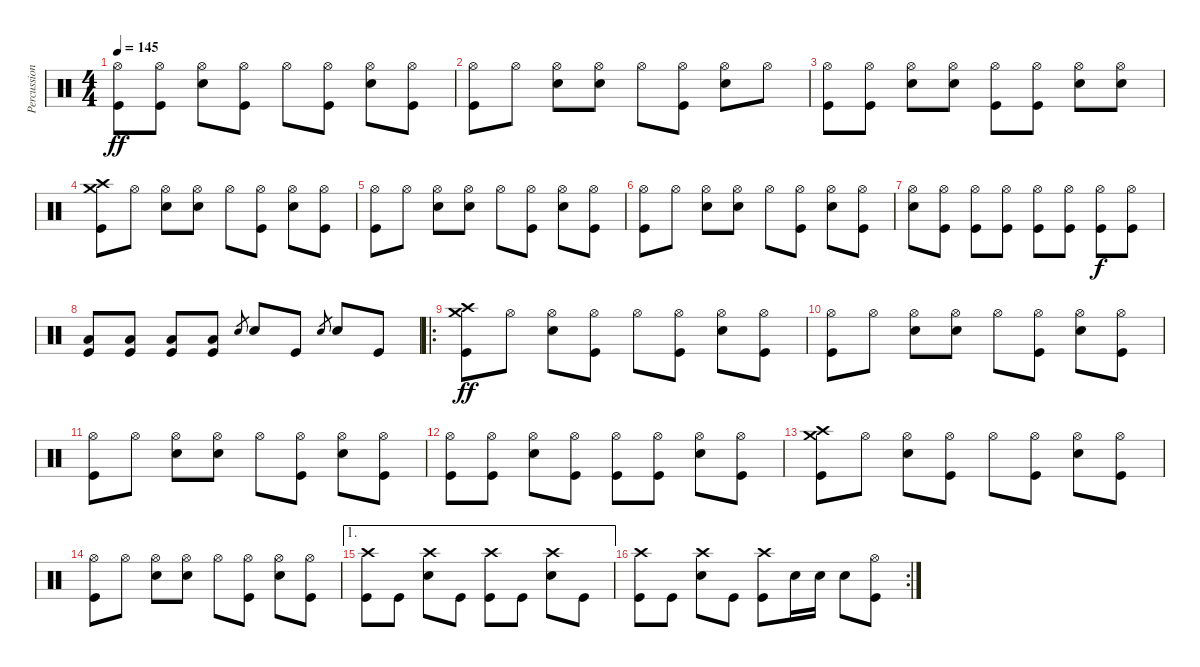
\track ("Percussion" "Percussion") {instrument percussion}
\staff {score}
\articulation defaults
\ts (4 4)
\tempo 145
\clef neutral
\ks c
("Hi-Hat (open)" "Kick (hit)").8{dy ff} ("Hi-Hat (open)" "Kick (hit)").8 ("Hi-Hat (open)" "Electric Snare (hit)").8 ("Hi-Hat (open)" "Kick (hit)").8 "Hi-Hat (open)".8 ("Hi-Hat (open)" "Kick (hit)").8 ("Hi-Hat (open)" "Electric Snare (hit)").8 ("Hi-Hat (open)" "Kick (hit)").8 |
("Hi-Hat (open)" "Kick (hit)").8 "Hi-Hat (open)".8 ("Hi-Hat (open)" "Electric Snare (hit)").8 ("Hi-Hat (open)" "Electric Snare (hit)").8 "Hi-Hat (open)".8 ("Hi-Hat (open)" "Kick (hit)").8 ("Hi-Hat (open)" "Electric Snare (hit)").8 "Hi-Hat (open)".8 |
("Hi-Hat (open)" "Kick (hit)").8 ("Hi-Hat (open)" "Kick (hit)").8 ("Hi-Hat (open)" "Electric Snare (hit)").8 ("Hi-Hat (open)" "Electric Snare (hit)").8 ("Hi-Hat (open)" "Kick (hit)").8 ("Hi-Hat (open)" "Kick (hit)").8 ("Hi-Hat (open)" "Electric Snare (hit)").8 ("Hi-Hat (open)" "Electric Snare (hit)").8 |
("Crash high (hit)" "Crash medium (hit)" "Kick (hit)").8 "Hi-Hat (open)".8 ("Hi-Hat (open)" "Electric Snare (hit)").8 ("Hi-Hat (open)" "Electric Snare (hit)").8 "Hi-Hat (open)".8 ("Hi-Hat (open)" "Kick (hit)").8 ("Hi-Hat (open)" "Electric Snare (hit)").8 ("Hi-Hat (open)" "Kick (hit)").8 |
("Hi-Hat (open)" "Kick (hit)").8 "Hi-Hat (open)".8 ("Hi-Hat (open)" "Electric Snare (hit)").8 ("Hi-Hat (open)" "Electric Snare (hit)").8 "Hi-Hat (open)".8 ("Hi-Hat (open)" "Kick (hit)").8 ("Hi-Hat (open)" "Electric Snare (hit)").8 ("Hi-Hat (open)" "Kick (hit)").8 |
("Hi-Hat (open)" "Kick (hit)").8 "Hi-Hat (open)".8 ("Hi-Hat (open)" "Electric Snare (hit)").8 ("Hi-Hat (open)" "Electric Snare (hit)").8 "Hi-Hat (open)".8 ("Hi-Hat (open)" "Kick (hit)").8 ("Hi-Hat (open)" "Electric Snare (hit)").8 ("Hi-Hat (open)" "Kick (hit)").8 |
("Hi-Hat (open)" "Electric Snare (hit)").8 ("Hi-Hat (open)" "Kick (hit)").8 ("Hi-Hat (open)" "Kick (hit)").8 ("Hi-Hat (open)" "Kick (hit)").8 ("Hi-Hat (open)" "Kick (hit)").8 ("Hi-Hat (open)" "Kick (hit)").8 ("Hi-Hat (open)" "Kick (hit)").8{dy f} ("Hi-Hat (open)" "Kick (hit)").8 |
("Low Tom (hit)" "Kick (hit)").8 ("Low Tom (hit)" "Kick (hit)").8 ("Low Tom (hit)" "Kick (hit)").8 ("Low Tom (hit)" "Kick (hit)").8 "Electric Snare (hit)"{h}.8{gr} "Electric Snare (hit)".8 "Kick (hit)".8 "Electric Snare (hit)"{h}.8{gr} "Electric Snare (hit)".8 "Kick (hit)".8 |
\ro
("Crash medium (hit)" "Crash high (hit)" "Kick (hit)").8{dy ff} "Hi-Hat (open)".8 ("Hi-Hat (open)" "Electric Snare (hit)").8 ("Hi-Hat (open)" "Kick (hit)").8 "Hi-Hat (open)".8 ("Hi-Hat (open)" "Kick (hit)").8 ("Hi-Hat (open)" "Electric Snare (hit)").8 ("Hi-Hat (open)" "Kick (hit)").8 |
("Hi-Hat (open)" "Kick (hit)").8 "Hi-Hat (open)".8 ("Hi-Hat (open)" "Electric Snare (hit)").8 ("Hi-Hat (open)" "Electric Snare (hit)").8 "Hi-Hat (open)".8 ("Hi-Hat (open)" "Kick (hit)").8 ("Hi-Hat (open)" "Electric Snare (hit)").8 ("Hi-Hat (open)" "Kick (hit)").8 |
("Hi-Hat (open)" "Kick (hit)").8 "Hi-Hat (open)".8 ("Hi-Hat (open)" "Electric Snare (hit)").8 ("Hi-Hat (open)" "Electric Snare (hit)").8 "Hi-Hat (open)".8 ("Hi-Hat (open)" "Kick (hit)").8 ("Hi-Hat (open)" "Electric Snare (hit)").8 ("Hi-Hat (open)" "Kick (hit)").8 |
("Hi-Hat (open)" "Kick (hit)").8 ("Hi-Hat (open)" "Kick (hit)").8 ("Hi-Hat (open)" "Electric Snare (hit)").8 ("Hi-Hat (open)" "Kick (hit)").8 ("Hi-Hat (open)" "Kick (hit)").8 ("Hi-Hat (open)" "Kick (hit)").8 ("Hi-Hat (open)" "Electric Snare (hit)").8 ("Hi-Hat (open)" "Kick (hit)").8 |
("Crash medium (hit)" "Crash high (hit)" "Kick (hit)").8 "Hi-Hat (open)".8 ("Hi-Hat (open)" "Electric Snare (hit)").8 ("Hi-Hat (open)" "Kick (hit)").8 "Hi-Hat (open)".8 ("Hi-Hat (open)" "Kick (hit)").8 ("Hi-Hat (open)" "Electric Snare (hit)").8 ("Hi-Hat (open)" "Kick (hit)").8 |
("Hi-Hat (open)" "Kick (hit)").8 "Hi-Hat (open)".8 ("Hi-Hat (open)" "Electric Snare (hit)").8 ("Hi-Hat (open)" "Electric Snare (hit)").8 "Hi-Hat (open)".8 ("Hi-Hat (open)" "Kick (hit)").8 ("Hi-Hat (open)" "Electric Snare (hit)").8 ("Hi-Hat (open)" "Kick (hit)").8 |
\ae 1
("Crash high (hit)" "Kick (hit)").8 "Kick (hit)".8 ("Crash high (hit)" "Electric Snare (hit)").8 "Kick (hit)".8 ("Crash high (hit)" "Kick (hit)").8 "Kick (hit)".8 ("Crash high (hit)" "Electric Snare (hit)").8 "Kick (hit)".8 |
\rc 2
("Crash high (hit)" "Kick (hit)").8 "Kick (hit)".8 ("Crash high (hit)" "Electric Snare (hit)").8 "Kick (hit)".8 ("Crash high (hit)" "Kick (hit)").8 "Electric Snare (hit)".16 "Electric Snare (hit)".16 "Electric Snare (hit)".8 ("Hi-Hat (open)" "Kick (hit)").8
